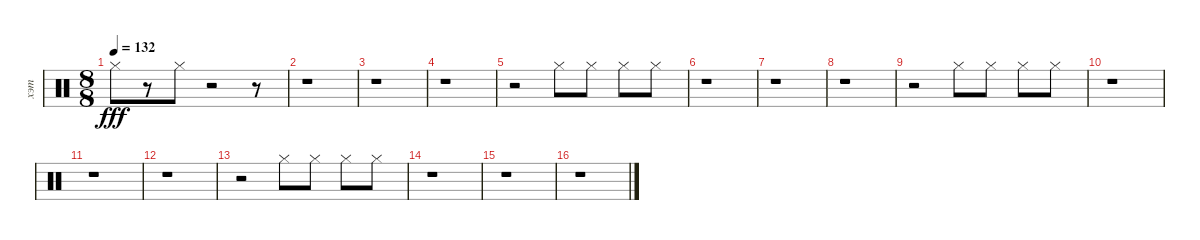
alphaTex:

\track ("хэт" "хэт") {instrument percussion}
\staff {score}
\articulation defaults
\ts (8 8)
\tempo 132
\clef neutral
\ks c "Hi-Hat (closed)".8{dy fff}
r.8 "Hi-Hat (closed)".8 r.2 r.8 |
r.1 |
r.1 |
r.1 |
r.2 "Hi-Hat (closed)".8 "Hi-Hat (closed)".8 "Hi-Hat (closed)".8 "Hi-Hat (closed)".8 |
r.1 |
r.1 |
r.1 |
r.2 "Hi-Hat (closed)".8 "Hi-Hat (closed)".8 "Hi-Hat (closed)".8 "Hi-Hat (closed)".8 |
r.1 |
r.1 |
r.1 |
r.2 "Hi-Hat (closed)".8 "Hi-Hat (closed)".8 "Hi-Hat (closed)".8 "Hi-Hat (closed)".8 |
r.1 |
r.1 |
r.1
